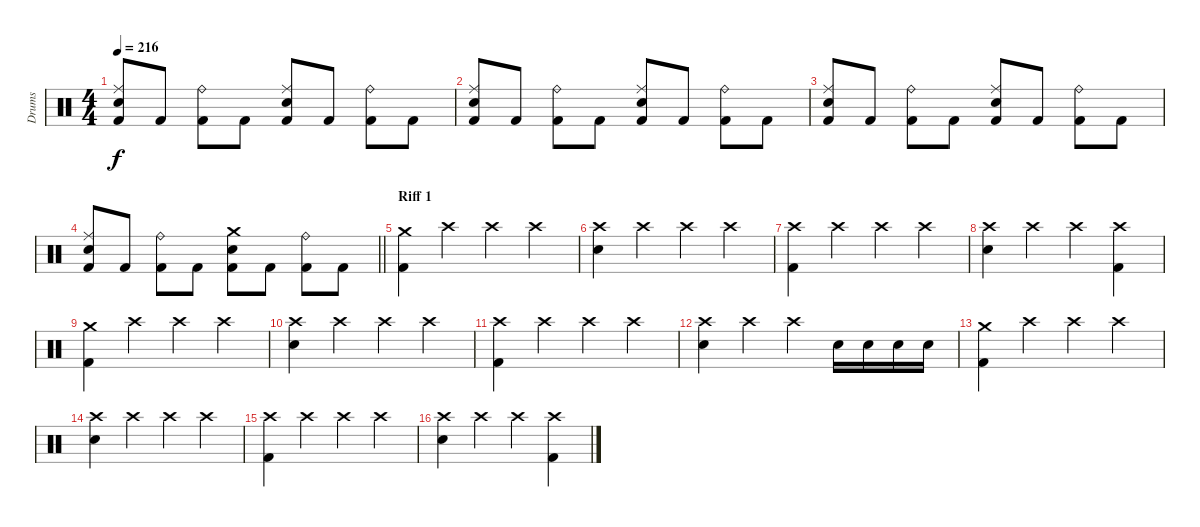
\track ("Drums" "Drums") {instrument percussion}
\staff {score}
\articulation defaults
\ts (4 4)
\tempo 216
\clef neutral
\ks c
("Kick (hit) 2" "Ride (middle)" "Electric Snare (hit)").8{dy f} "Kick (hit) 2".8 ("Kick (hit) 2" "Ride (bell)").8 "Kick (hit) 2".8 ("Kick (hit) 2" "Electric Snare (hit)" "Ride (middle)").8 "Kick (hit) 2".8 ("Kick (hit) 2" "Ride (bell)").8 "Kick (hit) 2".8 |
("Kick (hit) 2" "Ride (middle)" "Electric Snare (hit)").8 "Kick (hit) 2".8 ("Kick (hit) 2" "Ride (bell)").8 "Kick (hit) 2".8 ("Kick (hit) 2" "Electric Snare (hit)" "Ride (middle)").8 "Kick (hit) 2".8 ("Kick (hit) 2" "Ride (bell)").8 "Kick (hit) 2".8 |
("Kick (hit) 2" "Ride (middle)" "Electric Snare (hit)").8 "Kick (hit) 2".8 ("Kick (hit) 2" "Ride (bell)").8 "Kick (hit) 2".8 ("Kick (hit) 2" "Electric Snare (hit)" "Ride (middle)").8 "Kick (hit) 2".8 ("Kick (hit) 2" "Ride (bell)").8 "Kick (hit) 2".8 |
\barLineRight lightlight
("Kick (hit) 2" "Ride (middle)" "Electric Snare (hit)").8 "Kick (hit) 2".8 ("Kick (hit) 2" "Ride (bell)").8 "Kick (hit) 2".8 ("Kick (hit) 2" "Electric Snare (hit)" "Crash medium (hit)").8 "Kick (hit) 2".8 ("Kick (hit) 2" "Ride (bell)").8 "Kick (hit) 2".8 |
\section ("" "Riff 1")
("Crash medium (hit)" "Kick (hit) 2").4 "Crash high (hit)".4 "Crash high (hit)".4 "Crash high (hit)".4 |
("Crash high (hit)" "Electric Snare (hit)").4 "Crash high (hit)".4 "Crash high (hit)".4 "Crash high (hit)".4 |
("Crash high (hit)" "Kick (hit) 2").4 "Crash high (hit)".4 "Crash high (hit)".4 "Crash high (hit)".4 |
("Crash high (hit)" "Electric Snare (hit)").4 "Crash high (hit)".4 "Crash high (hit)".4 ("Crash high (hit)" "Kick (hit) 2").4 |
("Crash medium (hit)" "Kick (hit) 2").4 "Crash high (hit)".4 "Crash high (hit)".4 "Crash high (hit)".4 |
("Crash high (hit)" "Electric Snare (hit)").4 "Crash high (hit)".4 "Crash high (hit)".4 "Crash high (hit)".4 |
("Crash high (hit)" "Kick (hit) 2").4 "Crash high (hit)".4 "Crash high (hit)".4 "Crash high (hit)".4 |
("Crash high (hit)" "Electric Snare (hit)").4 "Crash high (hit)".4 "Crash high (hit)".4 "Electric Snare (hit)".16 "Electric Snare (hit)".16 "Electric Snare (hit)".16 "Electric Snare (hit)".16 |
("Crash medium (hit)" "Kick (hit) 2").4 "Crash high (hit)".4 "Crash high (hit)".4 "Crash high (hit)".4 |
("Crash high (hit)" "Electric Snare (hit)").4 "Crash high (hit)".4 "Crash high (hit)".4 "Crash high (hit)".4 |
("Crash high (hit)" "Kick (hit) 2").4 "Crash high (hit)".4 "Crash high (hit)".4 "Crash high (hit)".4 |
("Crash high (hit)" "Electric Snare (hit)").4 "Crash high (hit)".4 "Crash high (hit)".4 ("Crash high (hit)" "Kick (hit) 2").4
